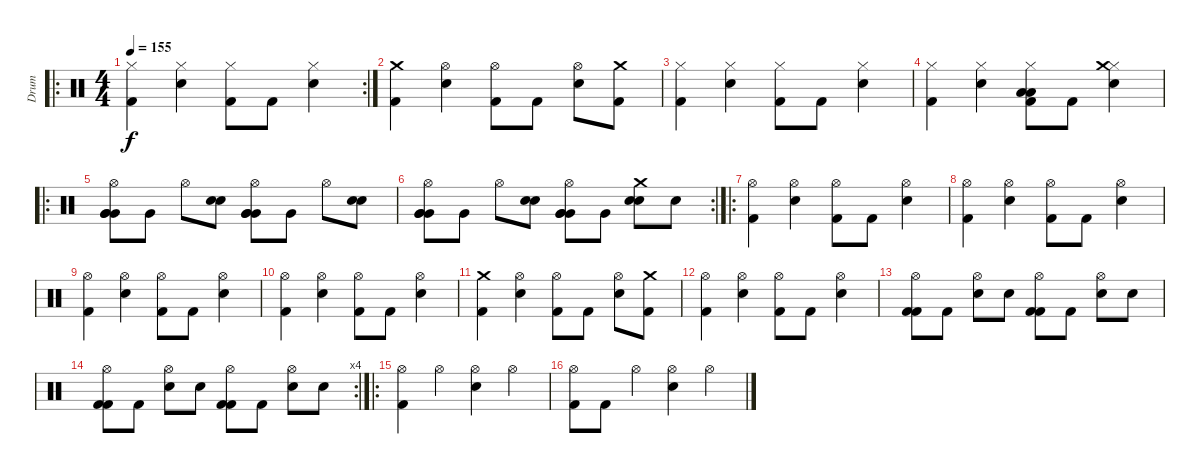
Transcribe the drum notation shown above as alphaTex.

\track ("Drum" "Drum") {instrument percussion}
\staff {score}
\articulation defaults
\ro
\rc 2
\ts (4 4)
\tempo 155
\clef neutral
\ks c
("Hi-Hat (closed)" "Kick (hit) 2").4{dy f} ("Hi-Hat (closed)" "Snare (hit) 2").4 ("Hi-Hat (closed)" "Kick (hit) 2").8 "Kick (hit) 2".8 ("Snare (hit) 2" "Hi-Hat (closed)").4 |
("Kick (hit) 2" "Crash medium (hit)").4 ("Snare (hit) 2" "Hi-Hat (open)").4 ("Kick (hit) 2" "Hi-Hat (open)").8 "Kick (hit) 2".8 ("Hi-Hat (open)" "Snare (hit) 2").8 ("Crash medium (hit)" "Kick (hit) 2").8 |
("Hi-Hat (closed)" "Kick (hit) 2").4 ("Hi-Hat (closed)" "Snare (hit) 2").4 ("Hi-Hat (closed)" "Kick (hit) 2").8 "Kick (hit) 2".8 ("Snare (hit) 2" "Hi-Hat (closed)").4 |
("Hi-Hat (closed)" "Kick (hit) 2").4 ("Hi-Hat (closed)" "Snare (hit) 2").4 ("Low Floor Tom (hit)" "Hi-Hat (closed)" "Kick (hit) 2" "Low Floor Tom (hit)").8{bd 480} "Kick (hit) 2".8 ("Snare (hit) 2" "Hi-Hat (closed)" "Crash medium (hit)").4 |
\ro
("Very Low Tom (hit)" "Very Low Tom (hit)" "Hi-Hat (open)" "Very Low Tom (hit)").8{bd 480} "Very Low Tom (hit)".8 "Hi-Hat (open)".8 ("Snare (hit) 2" "Snare (hit) 2").8{bd 480} ("Very Low Tom (hit)" "Very Low Tom (hit)" "Hi-Hat (open)" "Very Low Tom (hit)").8{bd 480} "Very Low Tom (hit)".8 "Hi-Hat (open)".8 ("Snare (hit) 2" "Snare (hit) 2").8{bd 480} |
\rc 2
("Very Low Tom (hit)" "Very Low Tom (hit)" "Hi-Hat (open)" "Very Low Tom (hit)").8{bd 480} "Very Low Tom (hit)".8 "Hi-Hat (open)".8 ("Snare (hit) 2" "Snare (hit) 2").8{bd 480} ("Very Low Tom (hit)" "Very Low Tom (hit)" "Hi-Hat (open)" "Very Low Tom (hit)").8{bd 480} "Very Low Tom (hit)".8 ("Snare (hit) 2" "Snare (hit) 2" "Crash medium (hit)").8{bd 480} "Snare (hit) 2".8 |
\ro
("Hi-Hat (open)" "Kick (hit) 2").4 ("Hi-Hat (open)" "Snare (hit) 2").4 ("Hi-Hat (open)" "Kick (hit) 2").8 "Kick (hit) 2".8 ("Snare (hit) 2" "Hi-Hat (open)").4 |
("Hi-Hat (open)" "Kick (hit) 2").4 ("Hi-Hat (open)" "Snare (hit) 2").4 ("Hi-Hat (open)" "Kick (hit) 2").8 "Kick (hit) 2".8 ("Snare (hit) 2" "Hi-Hat (open)").4 |
("Hi-Hat (open)" "Kick (hit) 2").4 ("Hi-Hat (open)" "Snare (hit) 2").4 ("Hi-Hat (open)" "Kick (hit) 2").8 "Kick (hit) 2".8 ("Snare (hit) 2" "Hi-Hat (open)").4 |
("Hi-Hat (open)" "Kick (hit) 2").4 ("Hi-Hat (open)" "Snare (hit) 2").4 ("Hi-Hat (open)" "Kick (hit) 2").8 "Kick (hit) 2".8 ("Snare (hit) 2" "Hi-Hat (open)").4 |
("Kick (hit) 2" "Crash medium (hit)").4 ("Snare (hit) 2" "Hi-Hat (open)").4 ("Kick (hit) 2" "Hi-Hat (open)").8 "Kick (hit) 2".8 ("Hi-Hat (open)" "Snare (hit) 2").8 ("Crash medium (hit)" "Kick (hit) 2").8 |
("Hi-Hat (open)" "Kick (hit) 2").4 ("Hi-Hat (open)" "Snare (hit) 2").4 ("Hi-Hat (open)" "Kick (hit) 2").8 "Kick (hit) 2".8 ("Snare (hit) 2" "Hi-Hat (open)").4 |
("Kick (hit) 2" "Kick (hit) 2" "Hi-Hat (open)").8{bd 480} "Kick (hit) 2".8 ("Snare (hit) 2" "Hi-Hat (open)").8 "Snare (hit) 2".8 ("Kick (hit) 2" "Kick (hit) 2" "Hi-Hat (open)").8{bd 480} "Kick (hit) 2".8 ("Snare (hit) 2" "Hi-Hat (open)").8 "Snare (hit) 2".8 |
\rc 4
("Kick (hit) 2" "Kick (hit) 2" "Hi-Hat (open)").8{bd 480} "Kick (hit) 2".8 ("Snare (hit) 2" "Hi-Hat (open)").8 "Snare (hit) 2".8 ("Kick (hit) 2" "Kick (hit) 2" "Hi-Hat (open)").8{bd 480} "Kick (hit) 2".8 ("Snare (hit) 2" "Hi-Hat (open)").8 "Snare (hit) 2".8 |
\ro
("Kick (hit) 2" "Hi-Hat (open)").4 "Hi-Hat (open)".4 ("Snare (hit) 2" "Hi-Hat (open)").4 "Hi-Hat (open)".4 |
("Kick (hit) 2" "Hi-Hat (open)").8 "Kick (hit) 2".8 "Hi-Hat (open)".4 ("Snare (hit) 2" "Hi-Hat (open)").4 "Hi-Hat (open)".4
